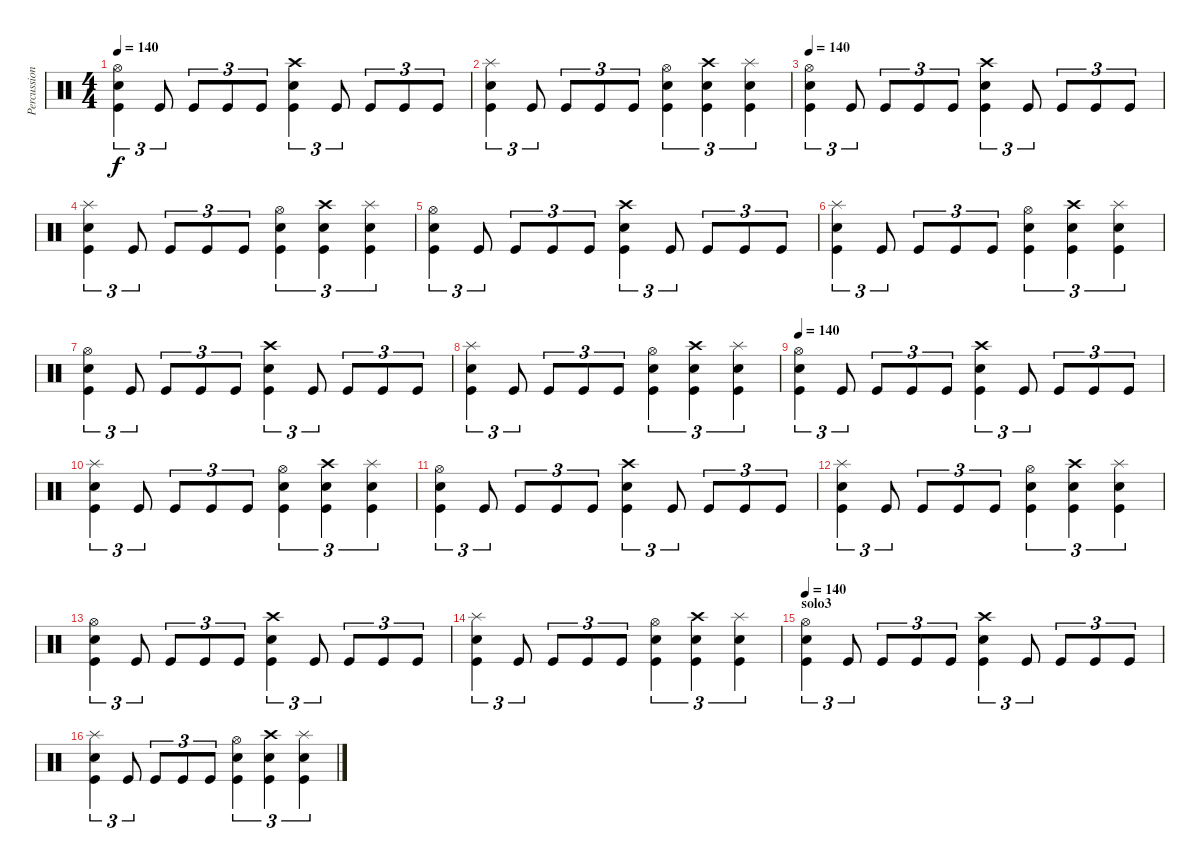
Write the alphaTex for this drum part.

\track ("Percussions" "Percussion") {instrument percussion}
\staff {score}
\articulation defaults
\ts (4 4)
\tempo 140
\clef neutral
\ks c
("Hi-Hat (open)" "Snare (hit) 2" "Kick (hit)").4{tu (3 2) dy f} "Kick (hit)".8{tu (3 2)} "Kick (hit)".8{tu (3 2)} "Kick (hit)".8{tu (3 2)} "Kick (hit)".8{tu (3 2)} ("Crash high (hit)" "Snare (hit) 2" "Kick (hit)").4{tu (3 2)} "Kick (hit)".8{tu (3 2)} "Kick (hit)".8{tu (3 2)} "Kick (hit)".8{tu (3 2)} "Kick (hit)".8{tu (3 2)} |
("Splash (hit)" "Snare (hit) 2" "Kick (hit)").4{tu (3 2)} "Kick (hit)".8{tu (3 2)} "Kick (hit)".8{tu (3 2)} "Kick (hit)".8{tu (3 2)} "Kick (hit)".8{tu (3 2)} ("Hi-Hat (open)" "Kick (hit)" "Snare (hit) 2").4{tu (3 2)} ("Crash high (hit)" "Kick (hit)" "Snare (hit) 2").4{tu (3 2)} ("Splash (hit)" "Kick (hit)" "Snare (hit) 2").4{tu (3 2)} |
\tempo 140
("Hi-Hat (open)" "Snare (hit) 2" "Kick (hit)").4{tu (3 2)} "Kick (hit)".8{tu (3 2)} "Kick (hit)".8{tu (3 2)} "Kick (hit)".8{tu (3 2)} "Kick (hit)".8{tu (3 2)} ("Crash high (hit)" "Snare (hit) 2" "Kick (hit)").4{tu (3 2)} "Kick (hit)".8{tu (3 2)} "Kick (hit)".8{tu (3 2)} "Kick (hit)".8{tu (3 2)} "Kick (hit)".8{tu (3 2)} |
("Splash (hit)" "Snare (hit) 2" "Kick (hit)").4{tu (3 2)} "Kick (hit)".8{tu (3 2)} "Kick (hit)".8{tu (3 2)} "Kick (hit)".8{tu (3 2)} "Kick (hit)".8{tu (3 2)} ("Hi-Hat (open)" "Kick (hit)" "Snare (hit) 2").4{tu (3 2)} ("Crash high (hit)" "Kick (hit)" "Snare (hit) 2").4{tu (3 2)} ("Splash (hit)" "Kick (hit)" "Snare (hit) 2").4{tu (3 2)} |
("Hi-Hat (open)" "Snare (hit) 2" "Kick (hit)").4{tu (3 2)} "Kick (hit)".8{tu (3 2)} "Kick (hit)".8{tu (3 2)} "Kick (hit)".8{tu (3 2)} "Kick (hit)".8{tu (3 2)} ("Crash high (hit)" "Snare (hit) 2" "Kick (hit)").4{tu (3 2)} "Kick (hit)".8{tu (3 2)} "Kick (hit)".8{tu (3 2)} "Kick (hit)".8{tu (3 2)} "Kick (hit)".8{tu (3 2)} |
("Splash (hit)" "Snare (hit) 2" "Kick (hit)").4{tu (3 2)} "Kick (hit)".8{tu (3 2)} "Kick (hit)".8{tu (3 2)} "Kick (hit)".8{tu (3 2)} "Kick (hit)".8{tu (3 2)} ("Hi-Hat (open)" "Kick (hit)" "Snare (hit) 2").4{tu (3 2)} ("Crash high (hit)" "Kick (hit)" "Snare (hit) 2").4{tu (3 2)} ("Splash (hit)" "Kick (hit)" "Snare (hit) 2").4{tu (3 2)} |
("Hi-Hat (open)" "Snare (hit) 2" "Kick (hit)").4{tu (3 2)} "Kick (hit)".8{tu (3 2)} "Kick (hit)".8{tu (3 2)} "Kick (hit)".8{tu (3 2)} "Kick (hit)".8{tu (3 2)} ("Crash high (hit)" "Snare (hit) 2" "Kick (hit)").4{tu (3 2)} "Kick (hit)".8{tu (3 2)} "Kick (hit)".8{tu (3 2)} "Kick (hit)".8{tu (3 2)} "Kick (hit)".8{tu (3 2)} |
("Splash (hit)" "Snare (hit) 2" "Kick (hit)").4{tu (3 2)} "Kick (hit)".8{tu (3 2)} "Kick (hit)".8{tu (3 2)} "Kick (hit)".8{tu (3 2)} "Kick (hit)".8{tu (3 2)} ("Hi-Hat (open)" "Kick (hit)" "Snare (hit) 2").4{tu (3 2)} ("Crash high (hit)" "Kick (hit)" "Snare (hit) 2").4{tu (3 2)} ("Splash (hit)" "Kick (hit)" "Snare (hit) 2").4{tu (3 2)} |
\tempo 140
("Hi-Hat (open)" "Snare (hit) 2" "Kick (hit)").4{tu (3 2)} "Kick (hit)".8{tu (3 2)} "Kick (hit)".8{tu (3 2)} "Kick (hit)".8{tu (3 2)} "Kick (hit)".8{tu (3 2)} ("Crash high (hit)" "Snare (hit) 2" "Kick (hit)").4{tu (3 2)} "Kick (hit)".8{tu (3 2)} "Kick (hit)".8{tu (3 2)} "Kick (hit)".8{tu (3 2)} "Kick (hit)".8{tu (3 2)} |
("Splash (hit)" "Snare (hit) 2" "Kick (hit)").4{tu (3 2)} "Kick (hit)".8{tu (3 2)} "Kick (hit)".8{tu (3 2)} "Kick (hit)".8{tu (3 2)} "Kick (hit)".8{tu (3 2)} ("Hi-Hat (open)" "Kick (hit)" "Snare (hit) 2").4{tu (3 2)} ("Crash high (hit)" "Kick (hit)" "Snare (hit) 2").4{tu (3 2)} ("Splash (hit)" "Kick (hit)" "Snare (hit) 2").4{tu (3 2)} |
("Hi-Hat (open)" "Snare (hit) 2" "Kick (hit)").4{tu (3 2)} "Kick (hit)".8{tu (3 2)} "Kick (hit)".8{tu (3 2)} "Kick (hit)".8{tu (3 2)} "Kick (hit)".8{tu (3 2)} ("Crash high (hit)" "Snare (hit) 2" "Kick (hit)").4{tu (3 2)} "Kick (hit)".8{tu (3 2)} "Kick (hit)".8{tu (3 2)} "Kick (hit)".8{tu (3 2)} "Kick (hit)".8{tu (3 2)} |
("Splash (hit)" "Snare (hit) 2" "Kick (hit)").4{tu (3 2)} "Kick (hit)".8{tu (3 2)} "Kick (hit)".8{tu (3 2)} "Kick (hit)".8{tu (3 2)} "Kick (hit)".8{tu (3 2)} ("Hi-Hat (open)" "Kick (hit)" "Snare (hit) 2").4{tu (3 2)} ("Crash high (hit)" "Kick (hit)" "Snare (hit) 2").4{tu (3 2)} ("Splash (hit)" "Kick (hit)" "Snare (hit) 2").4{tu (3 2)} |
("Hi-Hat (open)" "Snare (hit) 2" "Kick (hit)").4{tu (3 2)} "Kick (hit)".8{tu (3 2)} "Kick (hit)".8{tu (3 2)} "Kick (hit)".8{tu (3 2)} "Kick (hit)".8{tu (3 2)} ("Crash high (hit)" "Snare (hit) 2" "Kick (hit)").4{tu (3 2)} "Kick (hit)".8{tu (3 2)} "Kick (hit)".8{tu (3 2)} "Kick (hit)".8{tu (3 2)} "Kick (hit)".8{tu (3 2)} |
("Splash (hit)" "Snare (hit) 2" "Kick (hit)").4{tu (3 2)} "Kick (hit)".8{tu (3 2)} "Kick (hit)".8{tu (3 2)} "Kick (hit)".8{tu (3 2)} "Kick (hit)".8{tu (3 2)} ("Hi-Hat (open)" "Kick (hit)" "Snare (hit) 2").4{tu (3 2)} ("Crash high (hit)" "Kick (hit)" "Snare (hit) 2").4{tu (3 2)} ("Splash (hit)" "Kick (hit)" "Snare (hit) 2").4{tu (3 2)} |
\section ("" "solo3")
\tempo 190
\tempo 140
("Hi-Hat (open)" "Snare (hit) 2" "Kick (hit)").4{tu (3 2)} "Kick (hit)".8{tu (3 2)} "Kick (hit)".8{tu (3 2)} "Kick (hit)".8{tu (3 2)} "Kick (hit)".8{tu (3 2)} ("Crash high (hit)" "Snare (hit) 2" "Kick (hit)").4{tu (3 2)} "Kick (hit)".8{tu (3 2)} "Kick (hit)".8{tu (3 2)} "Kick (hit)".8{tu (3 2)} "Kick (hit)".8{tu (3 2)} |
("Splash (hit)" "Snare (hit) 2" "Kick (hit)").4{tu (3 2)} "Kick (hit)".8{tu (3 2)} "Kick (hit)".8{tu (3 2)} "Kick (hit)".8{tu (3 2)} "Kick (hit)".8{tu (3 2)} ("Hi-Hat (open)" "Kick (hit)" "Snare (hit) 2").4{tu (3 2)} ("Crash high (hit)" "Kick (hit)" "Snare (hit) 2").4{tu (3 2)} ("Splash (hit)" "Kick (hit)" "Snare (hit) 2").4{tu (3 2)}
